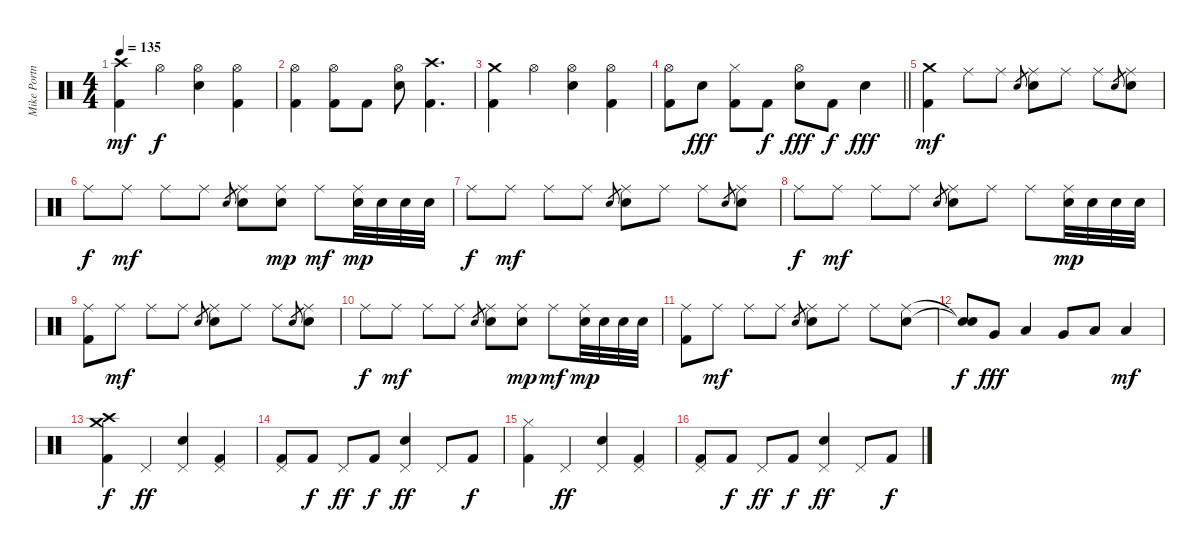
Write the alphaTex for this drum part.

\track ("Mike Portnoy" "Mike Portn") {instrument percussion}
\staff {score}
\articulation defaults
\ts (4 4)
\tempo 135
\clef neutral
\ks c
("Crash high (hit)" "Kick (hit) 2").4{dy mf} "Hi-Hat (open)".4{dy f} ("Hi-Hat (open)" "Electric Snare (hit)").4 ("Hi-Hat (open)" "Kick (hit) 2").4 |
("Hi-Hat (open)" "Kick (hit) 2").4 ("Hi-Hat (open)" "Kick (hit) 2").8 "Kick (hit) 2".8 ("Hi-Hat (open)" "Electric Snare (hit)").8 ("Crash high (hit)" "Kick (hit) 2").4{d} |
("Crash medium (hit)" "Kick (hit) 2").4 "Hi-Hat (open)".4 ("Hi-Hat (open)" "Electric Snare (hit)").4 ("Hi-Hat (open)" "Kick (hit) 2").4 |
\barLineRight lightlight
("Hi-Hat (open)" "Kick (hit) 2").8 "Electric Snare (hit)".8{dy fff} ("Hi-Hat (closed)" "Kick (hit) 2").8 "Kick (hit) 2".8{dy f} ("Hi-Hat (open)" "Electric Snare (hit)").8{dy fff} "Kick (hit) 2".8{dy f} "Electric Snare (hit)".4{dy fff} |
("Crash medium (hit)" "Kick (hit) 2").4{dy mf} "Ride (middle)".8 "Ride (middle)".8 "Electric Snare (hit)".8{gr} ("Ride (middle)" "Electric Snare (hit)").8 "Ride (middle)".8 "Ride (middle)".8 "Electric Snare (hit)".8{gr} ("Ride (middle)" "Electric Snare (hit)").8 |
"Ride (middle)".8{dy f} "Ride (middle)".8{dy mf} "Ride (middle)".8 "Ride (middle)".8 "Electric Snare (hit)".8{gr} ("Ride (middle)" "Electric Snare (hit)").8 ("Ride (middle)" "Electric Snare (hit)").8{dy mp} "Ride (middle)".8{dy mf} ("Ride (middle)" "Electric Snare (hit)").32{dy mp} "Electric Snare (hit)".32 "Electric Snare (hit)".32 "Electric Snare (hit)".32 |
"Ride (middle)".8{dy f} "Ride (middle)".8{dy mf} "Ride (middle)".8 "Ride (middle)".8 "Electric Snare (hit)".8{gr} ("Ride (middle)" "Electric Snare (hit)").8 "Ride (middle)".8 "Ride (middle)".8 "Electric Snare (hit)".8{gr} ("Ride (middle)" "Electric Snare (hit)").8 |
"Ride (middle)".8{dy f} "Ride (middle)".8{dy mf} "Ride (middle)".8 "Ride (middle)".8 "Electric Snare (hit)".8{gr} ("Ride (middle)" "Electric Snare (hit)").8 "Ride (middle)".8 "Ride (middle)".8 ("Ride (middle)" "Electric Snare (hit)").32{dy mp} "Electric Snare (hit)".32 "Electric Snare (hit)".32 "Electric Snare (hit)".32 |
("Ride (middle)" "Kick (hit) 2").8 "Ride (middle)".8{dy mf} "Ride (middle)".8 "Ride (middle)".8 "Electric Snare (hit)".8{gr} ("Ride (middle)" "Electric Snare (hit)").8 "Ride (middle)".8 "Ride (middle)".8 "Electric Snare (hit)".8{gr} ("Ride (middle)" "Electric Snare (hit)").8 |
"Ride (middle)".8{dy f} "Ride (middle)".8{dy mf} "Ride (middle)".8 "Ride (middle)".8 "Electric Snare (hit)".8{gr} ("Ride (middle)" "Electric Snare (hit)").8 ("Ride (middle)" "Electric Snare (hit)").8{dy mp} "Ride (middle)".8{dy mf} ("Ride (middle)" "Electric Snare (hit)").32{dy mp} "Electric Snare (hit)".32 "Electric Snare (hit)".32 "Electric Snare (hit)".32 |
("Ride (middle)" "Kick (hit) 2").8 "Ride (middle)".8{dy mf} "Ride (middle)".8 "Ride (middle)".8 "Electric Snare (hit)".8{gr} ("Ride (middle)" "Electric Snare (hit)").8 "Ride (middle)".8 "Ride (middle)".8 ("Ride (middle)" "Electric Snare (hit)").8 |
("Snare (hit)"{t} "Electric Snare (hit)"{t}).8{dy f} "Very Low Tom (hit)".8{dy fff} "Low Floor Tom (hit)".4 "Very Low Tom (hit)".8 "Low Floor Tom (hit)".8 "Low Tom (hit)".4{dy mf} |
("Crash high (hit)" "Crash medium (hit)" "Kick (hit) 2").4{dy f} "Pedal Hi-Hat (hit)".4{dy ff} ("Pedal Hi-Hat (hit)" "Electric Snare (hit)").4 ("Pedal Hi-Hat (hit)" "Kick (hit) 2").4 |
("Pedal Hi-Hat (hit)" "Kick (hit) 2").8 "Kick (hit) 2".8{dy f} "Pedal Hi-Hat (hit)".8{dy ff} "Kick (hit) 2".8{dy f} ("Pedal Hi-Hat (hit)" "Electric Snare (hit)").4{dy ff} "Pedal Hi-Hat (hit)".8 "Kick (hit) 2".8{dy f} |
("Hi-Hat (closed)" "Kick (hit) 2").4 "Pedal Hi-Hat (hit)".4{dy ff} ("Pedal Hi-Hat (hit)" "Electric Snare (hit)").4 ("Pedal Hi-Hat (hit)" "Kick (hit) 2").4 |
("Pedal Hi-Hat (hit)" "Kick (hit) 2").8 "Kick (hit) 2".8{dy f} "Pedal Hi-Hat (hit)".8{dy ff} "Kick (hit) 2".8{dy f} ("Pedal Hi-Hat (hit)" "Electric Snare (hit)").4{dy ff} "Pedal Hi-Hat (hit)".8 "Kick (hit) 2".8{dy f}
